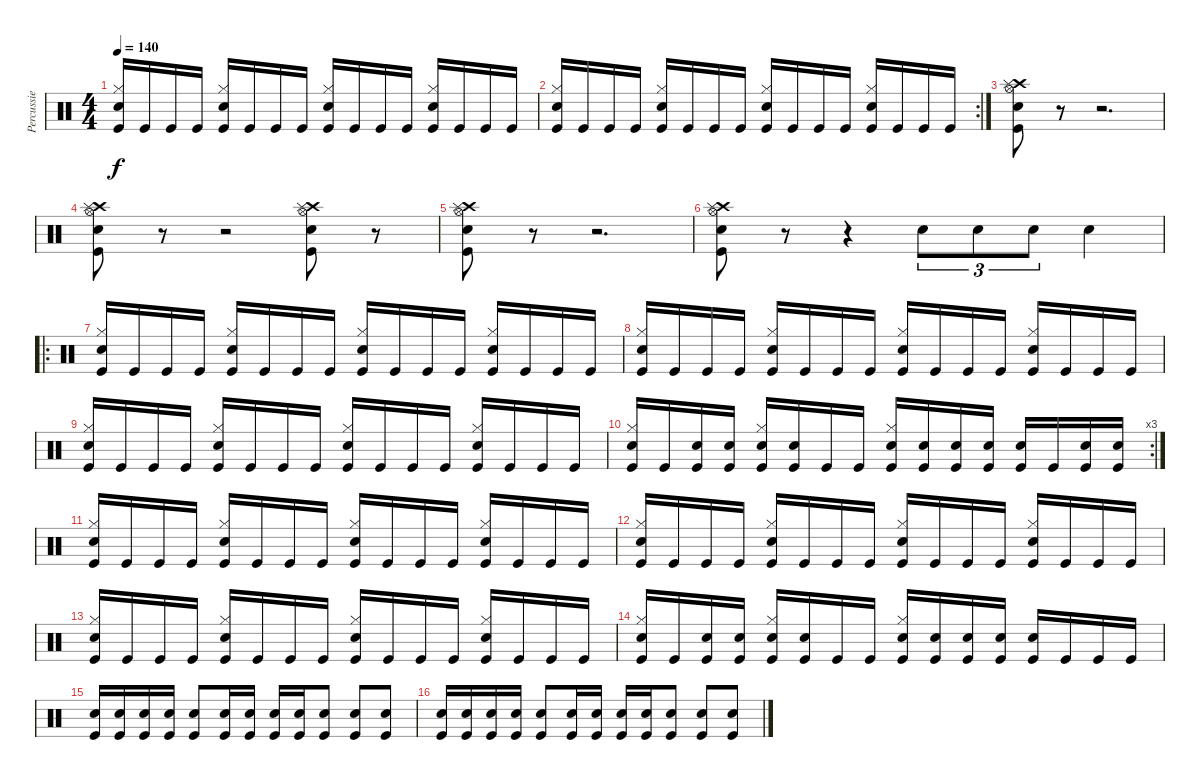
\track ("Percussie" "Percussie") {instrument percussion}
\staff {score}
\articulation defaults
\ts (4 4)
\tempo 140
\clef neutral
\ks c
("Snare (hit) 2" "Hi-Hat (closed)" "Kick (hit)").16{dy f} "Kick (hit)".16 "Kick (hit)".16 "Kick (hit)".16 ("Snare (hit) 2" "Hi-Hat (closed)" "Kick (hit)").16 "Kick (hit)".16 "Kick (hit)".16 "Kick (hit)".16 ("Snare (hit) 2" "Hi-Hat (closed)" "Kick (hit)").16 "Kick (hit)".16 "Kick (hit)".16 "Kick (hit)".16 ("Snare (hit) 2" "Hi-Hat (closed)" "Kick (hit)").16 "Kick (hit)".16 "Kick (hit)".16 "Kick (hit)".16 |
\rc 2
("Snare (hit) 2" "Hi-Hat (closed)" "Kick (hit)").16 "Kick (hit)".16 "Kick (hit)".16 "Kick (hit)".16 ("Snare (hit) 2" "Hi-Hat (closed)" "Kick (hit)").16 "Kick (hit)".16 "Kick (hit)".16 "Kick (hit)".16 ("Snare (hit) 2" "Hi-Hat (closed)" "Kick (hit)").16 "Kick (hit)".16 "Kick (hit)".16 "Kick (hit)".16 ("Snare (hit) 2" "Hi-Hat (closed)" "Kick (hit)").16 "Kick (hit)".16 "Kick (hit)".16 "Kick (hit)".16 |
("Crash high (hit)" "Splash (hit)" "Hi-Hat (open)" "Snare (hit) 2" "Kick (hit)").8 r.8 r.2{d} |
("Crash high (hit)" "Splash (hit)" "Hi-Hat (open)" "Snare (hit) 2" "Kick (hit)").8 r.8 r.2 ("Crash high (hit)" "Splash (hit)" "Hi-Hat (open)" "Snare (hit) 2" "Kick (hit)").8 r.8 |
("Crash high (hit)" "Splash (hit)" "Hi-Hat (open)" "Snare (hit) 2" "Kick (hit)").8 r.8 r.2{d} |
("Crash high (hit)" "Splash (hit)" "Hi-Hat (open)" "Snare (hit) 2" "Kick (hit)").8 r.8 r.4 "Snare (hit) 2".8{tu (3 2)} "Snare (hit) 2".8{tu (3 2)} "Snare (hit) 2".8{tu (3 2)} "Snare (hit) 2".4 |
\ro
("Snare (hit) 2" "Hi-Hat (closed)" "Kick (hit)").16 "Kick (hit)".16 "Kick (hit)".16 "Kick (hit)".16 ("Snare (hit) 2" "Hi-Hat (closed)" "Kick (hit)").16 "Kick (hit)".16 "Kick (hit)".16 "Kick (hit)".16 ("Snare (hit) 2" "Hi-Hat (closed)" "Kick (hit)").16 "Kick (hit)".16 "Kick (hit)".16 "Kick (hit)".16 ("Snare (hit) 2" "Hi-Hat (closed)" "Kick (hit)").16 "Kick (hit)".16 "Kick (hit)".16 "Kick (hit)".16 |
("Snare (hit) 2" "Hi-Hat (closed)" "Kick (hit)").16 "Kick (hit)".16 "Kick (hit)".16 "Kick (hit)".16 ("Snare (hit) 2" "Hi-Hat (closed)" "Kick (hit)").16 "Kick (hit)".16 "Kick (hit)".16 "Kick (hit)".16 ("Snare (hit) 2" "Hi-Hat (closed)" "Kick (hit)").16 "Kick (hit)".16 "Kick (hit)".16 "Kick (hit)".16 ("Snare (hit) 2" "Hi-Hat (closed)" "Kick (hit)").16 "Kick (hit)".16 "Kick (hit)".16 "Kick (hit)".16 |
("Snare (hit) 2" "Hi-Hat (closed)" "Kick (hit)").16 "Kick (hit)".16 "Kick (hit)".16 "Kick (hit)".16 ("Snare (hit) 2" "Hi-Hat (closed)" "Kick (hit)").16 "Kick (hit)".16 "Kick (hit)".16 "Kick (hit)".16 ("Snare (hit) 2" "Hi-Hat (closed)" "Kick (hit)").16 "Kick (hit)".16 "Kick (hit)".16 "Kick (hit)".16 ("Snare (hit) 2" "Hi-Hat (closed)" "Kick (hit)").16 "Kick (hit)".16 "Kick (hit)".16 "Kick (hit)".16 |
\rc 3
("Snare (hit) 2" "Hi-Hat (closed)" "Kick (hit)").16 "Kick (hit)".16 ("Snare (hit) 2" "Kick (hit)").16 ("Snare (hit) 2" "Kick (hit)").16 ("Snare (hit) 2" "Hi-Hat (closed)" "Kick (hit)").16 ("Snare (hit) 2" "Kick (hit)").16 "Kick (hit)".16 "Kick (hit)".16 ("Snare (hit) 2" "Hi-Hat (closed)" "Kick (hit)").16 ("Snare (hit) 2" "Kick (hit)").16 ("Snare (hit) 2" "Kick (hit)").16 ("Snare (hit) 2" "Kick (hit)").16 ("Snare (hit) 2" "Kick (hit)").16 "Kick (hit)".16 ("Snare (hit) 2" "Kick (hit)").16 ("Snare (hit) 2" "Kick (hit)").16 |
("Snare (hit) 2" "Hi-Hat (closed)" "Kick (hit)").16 "Kick (hit)".16 "Kick (hit)".16 "Kick (hit)".16 ("Snare (hit) 2" "Hi-Hat (closed)" "Kick (hit)").16 "Kick (hit)".16 "Kick (hit)".16 "Kick (hit)".16 ("Snare (hit) 2" "Hi-Hat (closed)" "Kick (hit)").16 "Kick (hit)".16 "Kick (hit)".16 "Kick (hit)".16 ("Snare (hit) 2" "Hi-Hat (closed)" "Kick (hit)").16 "Kick (hit)".16 "Kick (hit)".16 "Kick (hit)".16 |
("Snare (hit) 2" "Hi-Hat (closed)" "Kick (hit)").16 "Kick (hit)".16 "Kick (hit)".16 "Kick (hit)".16 ("Snare (hit) 2" "Hi-Hat (closed)" "Kick (hit)").16 "Kick (hit)".16 "Kick (hit)".16 "Kick (hit)".16 ("Snare (hit) 2" "Hi-Hat (closed)" "Kick (hit)").16 "Kick (hit)".16 "Kick (hit)".16 "Kick (hit)".16 ("Snare (hit) 2" "Hi-Hat (closed)" "Kick (hit)").16 "Kick (hit)".16 "Kick (hit)".16 "Kick (hit)".16 |
("Snare (hit) 2" "Hi-Hat (closed)" "Kick (hit)").16 "Kick (hit)".16 "Kick (hit)".16 "Kick (hit)".16 ("Snare (hit) 2" "Hi-Hat (closed)" "Kick (hit)").16 "Kick (hit)".16 "Kick (hit)".16 "Kick (hit)".16 ("Snare (hit) 2" "Hi-Hat (closed)" "Kick (hit)").16 "Kick (hit)".16 "Kick (hit)".16 "Kick (hit)".16 ("Snare (hit) 2" "Hi-Hat (closed)" "Kick (hit)").16 "Kick (hit)".16 "Kick (hit)".16 "Kick (hit)".16 |
("Snare (hit) 2" "Hi-Hat (closed)" "Kick (hit)").16 "Kick (hit)".16 ("Snare (hit) 2" "Kick (hit)").16 ("Snare (hit) 2" "Kick (hit)").16 ("Snare (hit) 2" "Hi-Hat (closed)" "Kick (hit)").16 ("Snare (hit) 2" "Kick (hit)").16 "Kick (hit)".16 "Kick (hit)".16 ("Snare (hit) 2" "Hi-Hat (closed)" "Kick (hit)").16 ("Snare (hit) 2" "Kick (hit)").16 ("Snare (hit) 2" "Kick (hit)").16 ("Snare (hit) 2" "Kick (hit)").16 ("Snare (hit) 2" "Kick (hit)").16 "Kick (hit)".16 "Kick (hit)".16 "Kick (hit)".16 |
("Snare (hit) 2" "Kick (hit)").16 ("Snare (hit) 2" "Kick (hit)").16 ("Snare (hit) 2" "Kick (hit)").16 ("Snare (hit) 2" "Kick (hit)").16 ("Snare (hit) 2" "Kick (hit)").8 ("Snare (hit) 2" "Kick (hit)").16 ("Snare (hit) 2" "Kick (hit)").16 ("Snare (hit) 2" "Kick (hit)").16 ("Snare (hit) 2" "Kick (hit)").16 ("Snare (hit) 2" "Kick (hit)").8 ("Snare (hit) 2" "Kick (hit)").8 ("Snare (hit) 2" "Kick (hit)").8 |
("Snare (hit) 2" "Kick (hit)").16 ("Snare (hit) 2" "Kick (hit)").16 ("Snare (hit) 2" "Kick (hit)").16 ("Snare (hit) 2" "Kick (hit)").16 ("Snare (hit) 2" "Kick (hit)").8 ("Snare (hit) 2" "Kick (hit)").16 ("Snare (hit) 2" "Kick (hit)").16 ("Snare (hit) 2" "Kick (hit)").16 ("Snare (hit) 2" "Kick (hit)").16 ("Snare (hit) 2" "Kick (hit)").8 ("Snare (hit) 2" "Kick (hit)").8 ("Snare (hit) 2" "Kick (hit)").8
